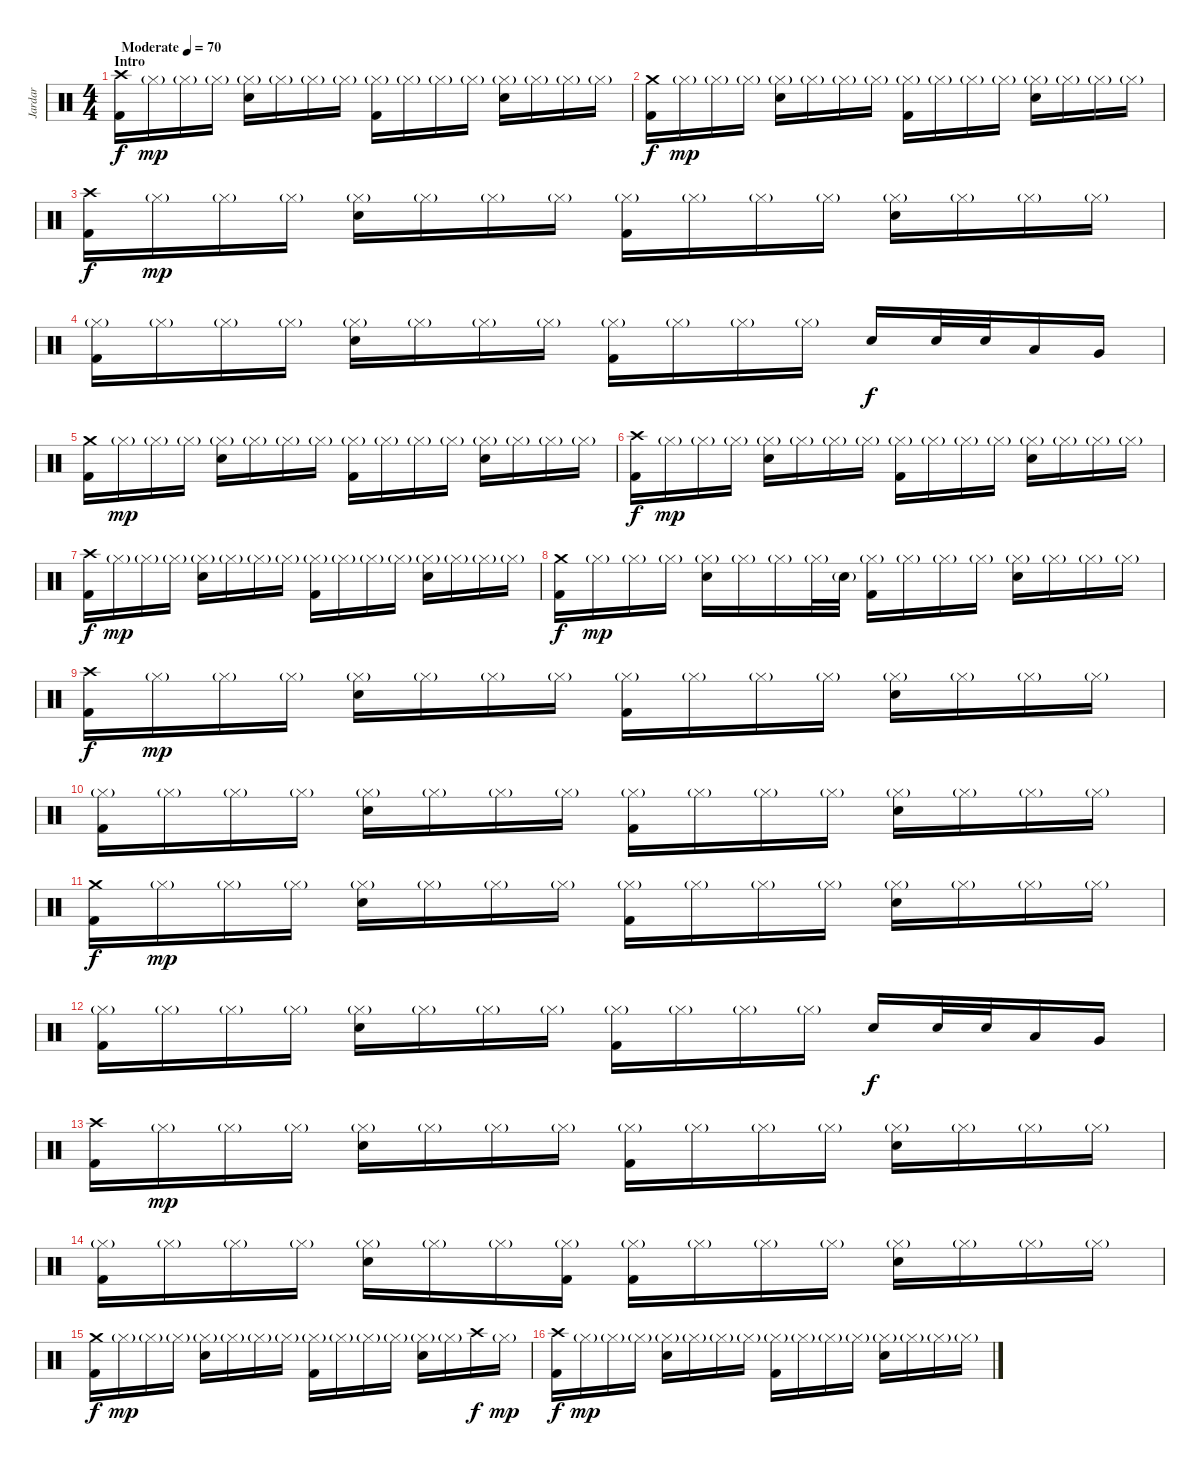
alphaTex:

\track ("Jardar" "Jardar") {instrument percussion}
\staff {score}
\articulation defaults
\ts (4 4)
\section ("" "Intro")
\tempo (70 "Moderate")
\clef neutral
\ks c
("Crash high (hit)" "Kick (hit) 2").16{dy f} "Hi-Hat (closed)"{g}.16{dy mp} "Hi-Hat (closed)"{g}.16 "Hi-Hat (closed)"{g}.16 ("Hi-Hat (closed)"{g} "Electric Snare (hit)").16 "Hi-Hat (closed)"{g}.16 "Hi-Hat (closed)"{g}.16 "Hi-Hat (closed)"{g}.16 ("Hi-Hat (closed)"{g} "Kick (hit) 2").16 "Hi-Hat (closed)"{g}.16 "Hi-Hat (closed)"{g}.16 "Hi-Hat (closed)"{g}.16 ("Hi-Hat (closed)"{g} "Electric Snare (hit)").16 "Hi-Hat (closed)"{g}.16 "Hi-Hat (closed)"{g}.16 "Hi-Hat (closed)"{g}.16 |
("Crash medium (hit)" "Kick (hit) 2").16{dy f} "Hi-Hat (closed)"{g}.16{dy mp} "Hi-Hat (closed)"{g}.16 "Hi-Hat (closed)"{g}.16 ("Hi-Hat (closed)"{g} "Electric Snare (hit)").16 "Hi-Hat (closed)"{g}.16 "Hi-Hat (closed)"{g}.16 "Hi-Hat (closed)"{g}.16 ("Hi-Hat (closed)"{g} "Kick (hit) 2").16 "Hi-Hat (closed)"{g}.16 "Hi-Hat (closed)"{g}.16 "Hi-Hat (closed)"{g}.16 ("Hi-Hat (closed)"{g} "Electric Snare (hit)").16 "Hi-Hat (closed)"{g}.16 "Hi-Hat (closed)"{g}.16 "Hi-Hat (closed)"{g}.16 |
("Crash high (hit)" "Kick (hit) 2").16{dy f} "Hi-Hat (closed)"{g}.16{dy mp} "Hi-Hat (closed)"{g}.16 "Hi-Hat (closed)"{g}.16 ("Hi-Hat (closed)"{g} "Electric Snare (hit)").16 "Hi-Hat (closed)"{g}.16 "Hi-Hat (closed)"{g}.16 "Hi-Hat (closed)"{g}.16 ("Hi-Hat (closed)"{g} "Kick (hit) 2").16 "Hi-Hat (closed)"{g}.16 "Hi-Hat (closed)"{g}.16 "Hi-Hat (closed)"{g}.16 ("Hi-Hat (closed)"{g} "Electric Snare (hit)").16 "Hi-Hat (closed)"{g}.16 "Hi-Hat (closed)"{g}.16 "Hi-Hat (closed)"{g}.16 |
("Hi-Hat (closed)"{g} "Kick (hit) 2").16 "Hi-Hat (closed)"{g}.16 "Hi-Hat (closed)"{g}.16 "Hi-Hat (closed)"{g}.16 ("Hi-Hat (closed)"{g} "Electric Snare (hit)").16 "Hi-Hat (closed)"{g}.16 "Hi-Hat (closed)"{g}.16 "Hi-Hat (closed)"{g}.16 ("Hi-Hat (closed)"{g} "Kick (hit) 2").16 "Hi-Hat (closed)"{g}.16 "Hi-Hat (closed)"{g}.16 "Hi-Hat (closed)"{g}.16 "Electric Snare (hit)".16{dy f} "Electric Snare (hit)".32 "Electric Snare (hit)".32 "Low Tom (hit)".16 "Very Low Tom (hit)".16 |
("Crash medium (hit)" "Kick (hit) 2").16 "Hi-Hat (closed)"{g}.16{dy mp} "Hi-Hat (closed)"{g}.16 "Hi-Hat (closed)"{g}.16 ("Hi-Hat (closed)"{g} "Electric Snare (hit)").16 "Hi-Hat (closed)"{g}.16 "Hi-Hat (closed)"{g}.16 "Hi-Hat (closed)"{g}.16 ("Hi-Hat (closed)"{g} "Kick (hit) 2").16 "Hi-Hat (closed)"{g}.16 "Hi-Hat (closed)"{g}.16 "Hi-Hat (closed)"{g}.16 ("Hi-Hat (closed)"{g} "Electric Snare (hit)").16 "Hi-Hat (closed)"{g}.16 "Hi-Hat (closed)"{g}.16 "Hi-Hat (closed)"{g}.16 |
("Crash high (hit)" "Kick (hit) 2").16{dy f} "Hi-Hat (closed)"{g}.16{dy mp} "Hi-Hat (closed)"{g}.16 "Hi-Hat (closed)"{g}.16 ("Hi-Hat (closed)"{g} "Electric Snare (hit)").16 "Hi-Hat (closed)"{g}.16 "Hi-Hat (closed)"{g}.16 "Hi-Hat (closed)"{g}.16 ("Hi-Hat (closed)"{g} "Kick (hit) 2").16 "Hi-Hat (closed)"{g}.16 "Hi-Hat (closed)"{g}.16 "Hi-Hat (closed)"{g}.16 ("Hi-Hat (closed)"{g} "Electric Snare (hit)").16 "Hi-Hat (closed)"{g}.16 "Hi-Hat (closed)"{g}.16 "Hi-Hat (closed)"{g}.16 |
("Crash high (hit)" "Kick (hit) 2").16{dy f} "Hi-Hat (closed)"{g}.16{dy mp} "Hi-Hat (closed)"{g}.16 "Hi-Hat (closed)"{g}.16 ("Hi-Hat (closed)"{g} "Electric Snare (hit)").16 "Hi-Hat (closed)"{g}.16 "Hi-Hat (closed)"{g}.16 "Hi-Hat (closed)"{g}.16 ("Hi-Hat (closed)"{g} "Kick (hit) 2").16 "Hi-Hat (closed)"{g}.16 "Hi-Hat (closed)"{g}.16 "Hi-Hat (closed)"{g}.16 ("Hi-Hat (closed)"{g} "Electric Snare (hit)").16 "Hi-Hat (closed)"{g}.16 "Hi-Hat (closed)"{g}.16 "Hi-Hat (closed)"{g}.16 |
("Crash medium (hit)" "Kick (hit) 2").16{dy f} "Hi-Hat (closed)"{g}.16{dy mp} "Hi-Hat (closed)"{g}.16 "Hi-Hat (closed)"{g}.16 ("Hi-Hat (closed)"{g} "Electric Snare (hit)").16 "Hi-Hat (closed)"{g}.16 "Hi-Hat (closed)"{g}.16 "Hi-Hat (closed)"{g}.32 "Electric Snare (hit)"{g}.32 ("Hi-Hat (closed)"{g} "Kick (hit) 2").16 "Hi-Hat (closed)"{g}.16 "Hi-Hat (closed)"{g}.16 "Hi-Hat (closed)"{g}.16 ("Hi-Hat (closed)"{g} "Electric Snare (hit)").16 "Hi-Hat (closed)"{g}.16 "Hi-Hat (closed)"{g}.16 "Hi-Hat (closed)"{g}.16 |
("Crash high (hit)" "Kick (hit) 2").16{dy f} "Hi-Hat (closed)"{g}.16{dy mp} "Hi-Hat (closed)"{g}.16 "Hi-Hat (closed)"{g}.16 ("Hi-Hat (closed)"{g} "Electric Snare (hit)").16 "Hi-Hat (closed)"{g}.16 "Hi-Hat (closed)"{g}.16 "Hi-Hat (closed)"{g}.16 ("Hi-Hat (closed)"{g} "Kick (hit) 2").16 "Hi-Hat (closed)"{g}.16 "Hi-Hat (closed)"{g}.16 "Hi-Hat (closed)"{g}.16 ("Hi-Hat (closed)"{g} "Electric Snare (hit)").16 "Hi-Hat (closed)"{g}.16 "Hi-Hat (closed)"{g}.16 "Hi-Hat (closed)"{g}.16 |
("Hi-Hat (closed)"{g} "Kick (hit) 2").16 "Hi-Hat (closed)"{g}.16 "Hi-Hat (closed)"{g}.16 "Hi-Hat (closed)"{g}.16 ("Hi-Hat (closed)"{g} "Electric Snare (hit)").16 "Hi-Hat (closed)"{g}.16 "Hi-Hat (closed)"{g}.16 "Hi-Hat (closed)"{g}.16 ("Hi-Hat (closed)"{g} "Kick (hit) 2").16 "Hi-Hat (closed)"{g}.16 "Hi-Hat (closed)"{g}.16 "Hi-Hat (closed)"{g}.16 ("Hi-Hat (closed)"{g} "Electric Snare (hit)").16 "Hi-Hat (closed)"{g}.16 "Hi-Hat (closed)"{g}.16 "Hi-Hat (closed)"{g}.16 |
("Crash medium (hit)" "Kick (hit) 2").16{dy f} "Hi-Hat (closed)"{g}.16{dy mp} "Hi-Hat (closed)"{g}.16 "Hi-Hat (closed)"{g}.16 ("Hi-Hat (closed)"{g} "Electric Snare (hit)").16 "Hi-Hat (closed)"{g}.16 "Hi-Hat (closed)"{g}.16 "Hi-Hat (closed)"{g}.16 ("Hi-Hat (closed)"{g} "Kick (hit) 2").16 "Hi-Hat (closed)"{g}.16 "Hi-Hat (closed)"{g}.16 "Hi-Hat (closed)"{g}.16 ("Hi-Hat (closed)"{g} "Electric Snare (hit)").16 "Hi-Hat (closed)"{g}.16 "Hi-Hat (closed)"{g}.16 "Hi-Hat (closed)"{g}.16 |
("Hi-Hat (closed)"{g} "Kick (hit) 2").16 "Hi-Hat (closed)"{g}.16 "Hi-Hat (closed)"{g}.16 "Hi-Hat (closed)"{g}.16 ("Hi-Hat (closed)"{g} "Electric Snare (hit)").16 "Hi-Hat (closed)"{g}.16 "Hi-Hat (closed)"{g}.16 "Hi-Hat (closed)"{g}.16 ("Hi-Hat (closed)"{g} "Kick (hit) 2").16 "Hi-Hat (closed)"{g}.16 "Hi-Hat (closed)"{g}.16 "Hi-Hat (closed)"{g}.16 "Electric Snare (hit)".16{dy f} "Electric Snare (hit)".32 "Electric Snare (hit)".32 "Low Tom (hit)".16 "Very Low Tom (hit)".16 |
("Crash high (hit)" "Kick (hit) 2").16 "Hi-Hat (closed)"{g}.16{dy mp} "Hi-Hat (closed)"{g}.16 "Hi-Hat (closed)"{g}.16 ("Hi-Hat (closed)"{g} "Electric Snare (hit)").16 "Hi-Hat (closed)"{g}.16 "Hi-Hat (closed)"{g}.16 "Hi-Hat (closed)"{g}.16 ("Hi-Hat (closed)"{g} "Kick (hit) 2").16 "Hi-Hat (closed)"{g}.16 "Hi-Hat (closed)"{g}.16 "Hi-Hat (closed)"{g}.16 ("Hi-Hat (closed)"{g} "Electric Snare (hit)").16 "Hi-Hat (closed)"{g}.16 "Hi-Hat (closed)"{g}.16 "Hi-Hat (closed)"{g}.16 |
("Hi-Hat (closed)"{g} "Kick (hit) 2").16 "Hi-Hat (closed)"{g}.16 "Hi-Hat (closed)"{g}.16 "Hi-Hat (closed)"{g}.16 ("Hi-Hat (closed)"{g} "Electric Snare (hit)").16 "Hi-Hat (closed)"{g}.16 "Hi-Hat (closed)"{g}.16 ("Hi-Hat (closed)"{g} "Kick (hit) 2").16 ("Hi-Hat (closed)"{g} "Kick (hit) 2").16 "Hi-Hat (closed)"{g}.16 "Hi-Hat (closed)"{g}.16 "Hi-Hat (closed)"{g}.16 ("Hi-Hat (closed)"{g} "Electric Snare (hit)").16 "Hi-Hat (closed)"{g}.16 "Hi-Hat (closed)"{g}.16 "Hi-Hat (closed)"{g}.16 |
("Crash medium (hit)" "Kick (hit) 2").16{dy f} "Hi-Hat (closed)"{g}.16{dy mp} "Hi-Hat (closed)"{g}.16 "Hi-Hat (closed)"{g}.16 ("Hi-Hat (closed)"{g} "Electric Snare (hit)").16 "Hi-Hat (closed)"{g}.16 "Hi-Hat (closed)"{g}.16 "Hi-Hat (closed)"{g}.16 ("Hi-Hat (closed)"{g} "Kick (hit) 2").16 "Hi-Hat (closed)"{g}.16 "Hi-Hat (closed)"{g}.16 "Hi-Hat (closed)"{g}.16 ("Hi-Hat (closed)"{g} "Electric Snare (hit)").16 "Hi-Hat (closed)"{g}.16 "Crash high (hit)".16{dy f} "Hi-Hat (closed)"{g}.16{dy mp} |
("Crash high (hit)" "Kick (hit) 2").16{dy f} "Hi-Hat (closed)"{g}.16{dy mp} "Hi-Hat (closed)"{g}.16 "Hi-Hat (closed)"{g}.16 ("Hi-Hat (closed)"{g} "Electric Snare (hit)").16 "Hi-Hat (closed)"{g}.16 "Hi-Hat (closed)"{g}.16 "Hi-Hat (closed)"{g}.16 ("Hi-Hat (closed)"{g} "Kick (hit) 2").16 "Hi-Hat (closed)"{g}.16 "Hi-Hat (closed)"{g}.16 "Hi-Hat (closed)"{g}.16 ("Hi-Hat (closed)"{g} "Electric Snare (hit)").16 "Hi-Hat (closed)"{g}.16 "Hi-Hat (closed)"{g}.16 "Hi-Hat (closed)"{g}.16
